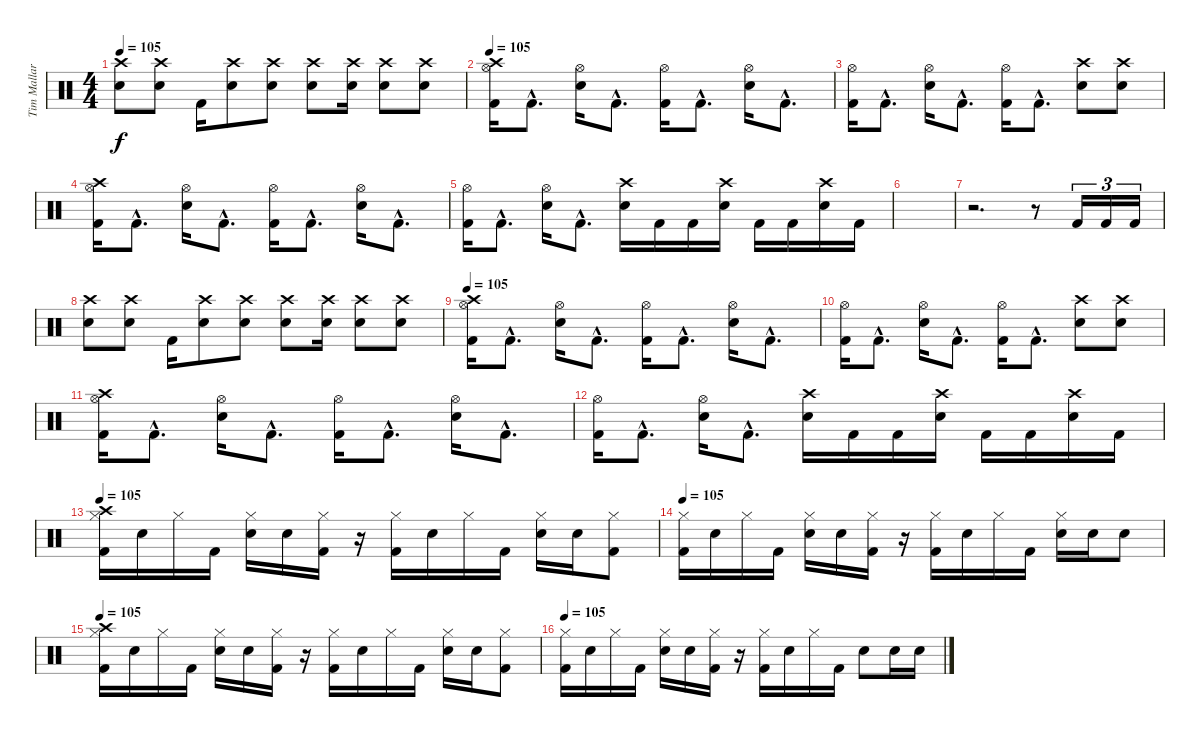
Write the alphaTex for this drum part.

\track ("Tim Mallare" "Tim Mallar") {instrument percussion}
\staff {score}
\articulation defaults
\ts (4 4)
\tempo 105
\clef neutral
\ks c
("Crash high (hit)" "Electric Snare (hit)").8{dy f} ("Crash high (hit)" "Electric Snare (hit)").8 "Kick (hit) 2".16 ("Crash high (hit)" "Electric Snare (hit)").8 ("Crash high (hit)" "Electric Snare (hit)").8 ("Crash high (hit)" "Electric Snare (hit)").8 ("Crash high (hit)" "Electric Snare (hit)").16 ("Crash high (hit)" "Electric Snare (hit)").8 ("Crash high (hit)" "Electric Snare (hit)").8 |
\tempo 105
("Crash high (hit)" "Hi-Hat (open)" "Kick (hit) 2").16 "Kick (hit) 2"{hac}.8{d} ("Hi-Hat (open)" "Electric Snare (hit)").16 "Kick (hit) 2"{hac}.8{d} ("Hi-Hat (open)" "Kick (hit) 2").16 "Kick (hit) 2"{hac}.8{d} ("Hi-Hat (open)" "Electric Snare (hit)").16 "Kick (hit) 2"{hac}.8{d} |
("Hi-Hat (open)" "Kick (hit) 2").16 "Kick (hit) 2"{hac}.8{d} ("Hi-Hat (open)" "Electric Snare (hit)").16 "Kick (hit) 2"{hac}.8{d} ("Hi-Hat (open)" "Kick (hit) 2").16 "Kick (hit) 2"{hac}.8{d} ("Crash high (hit)" "Electric Snare (hit)").8 ("Crash high (hit)" "Electric Snare (hit)").8 |
("Crash high (hit)" "Hi-Hat (open)" "Kick (hit) 2").16 "Kick (hit) 2"{hac}.8{d} ("Hi-Hat (open)" "Electric Snare (hit)").16 "Kick (hit) 2"{hac}.8{d} ("Hi-Hat (open)" "Kick (hit) 2").16 "Kick (hit) 2"{hac}.8{d} ("Hi-Hat (open)" "Electric Snare (hit)").16 "Kick (hit) 2"{hac}.8{d} |
("Hi-Hat (open)" "Kick (hit) 2").16 "Kick (hit) 2"{hac}.8{d} ("Hi-Hat (open)" "Electric Snare (hit)").16 "Kick (hit) 2"{hac}.8{d} ("Crash high (hit)" "Electric Snare (hit)").16 "Kick (hit) 2".16 "Kick (hit) 2".16 ("Crash high (hit)" "Electric Snare (hit)").16 "Kick (hit) 2".16 "Kick (hit) 2".16 ("Crash high (hit)" "Electric Snare (hit)").16 "Kick (hit) 2".16 |
|
r.2{d} r.8 "Kick (hit) 2".16{tu (3 2)} "Kick (hit) 2".16{tu (3 2)} "Kick (hit) 2".16{tu (3 2)} |
("Crash high (hit)" "Electric Snare (hit)").8 ("Crash high (hit)" "Electric Snare (hit)").8 "Kick (hit) 2".16 ("Crash high (hit)" "Electric Snare (hit)").8 ("Crash high (hit)" "Electric Snare (hit)").8 ("Crash high (hit)" "Electric Snare (hit)").8 ("Crash high (hit)" "Electric Snare (hit)").16 ("Crash high (hit)" "Electric Snare (hit)").8 ("Crash high (hit)" "Electric Snare (hit)").8 |
\tempo 105
("Crash high (hit)" "Hi-Hat (open)" "Kick (hit) 2").16 "Kick (hit) 2"{hac}.8{d} ("Hi-Hat (open)" "Electric Snare (hit)").16 "Kick (hit) 2"{hac}.8{d} ("Hi-Hat (open)" "Kick (hit) 2").16 "Kick (hit) 2"{hac}.8{d} ("Hi-Hat (open)" "Electric Snare (hit)").16 "Kick (hit) 2"{hac}.8{d} |
("Hi-Hat (open)" "Kick (hit) 2").16 "Kick (hit) 2"{hac}.8{d} ("Hi-Hat (open)" "Electric Snare (hit)").16 "Kick (hit) 2"{hac}.8{d} ("Hi-Hat (open)" "Kick (hit) 2").16 "Kick (hit) 2"{hac}.8{d} ("Crash high (hit)" "Electric Snare (hit)").8 ("Crash high (hit)" "Electric Snare (hit)").8 |
("Crash high (hit)" "Hi-Hat (open)" "Kick (hit) 2").16 "Kick (hit) 2"{hac}.8{d} ("Hi-Hat (open)" "Electric Snare (hit)").16 "Kick (hit) 2"{hac}.8{d} ("Hi-Hat (open)" "Kick (hit) 2").16 "Kick (hit) 2"{hac}.8{d} ("Hi-Hat (open)" "Electric Snare (hit)").16 "Kick (hit) 2"{hac}.8{d} |
("Hi-Hat (open)" "Kick (hit) 2").16 "Kick (hit) 2"{hac}.8{d} ("Hi-Hat (open)" "Electric Snare (hit)").16 "Kick (hit) 2"{hac}.8{d} ("Crash high (hit)" "Electric Snare (hit)").16 "Kick (hit) 2".16 "Kick (hit) 2".16 ("Crash high (hit)" "Electric Snare (hit)").16 "Kick (hit) 2".16 "Kick (hit) 2".16 ("Crash high (hit)" "Electric Snare (hit)").16 "Kick (hit) 2".16 |
\tempo 105
("Crash high (hit)" "Hi-Hat (closed)" "Kick (hit) 2").16 "Electric Snare (hit)".16 "Hi-Hat (closed)".16 "Kick (hit) 2".16 ("Hi-Hat (closed)" "Electric Snare (hit)").16 "Electric Snare (hit)".16 ("Hi-Hat (closed)" "Kick (hit) 2").16 r.16 ("Hi-Hat (closed)" "Kick (hit) 2").16 "Electric Snare (hit)".16 "Hi-Hat (closed)".16 "Kick (hit) 2".16 ("Hi-Hat (closed)" "Electric Snare (hit)").16 "Electric Snare (hit)".16 ("Hi-Hat (closed)" "Kick (hit) 2").8 |
\tempo 105
("Hi-Hat (closed)" "Kick (hit) 2").16 "Electric Snare (hit)".16 "Hi-Hat (closed)".16 "Kick (hit) 2".16 ("Hi-Hat (closed)" "Electric Snare (hit)").16 "Electric Snare (hit)".16 ("Hi-Hat (closed)" "Kick (hit) 2").16 r.16 ("Hi-Hat (closed)" "Kick (hit) 2").16 "Electric Snare (hit)".16 "Hi-Hat (closed)".16 "Kick (hit) 2".16 ("Hi-Hat (closed)" "Electric Snare (hit)").16 "Electric Snare (hit)".16 "Electric Snare (hit)".8 |
\tempo 105
("Crash high (hit)" "Hi-Hat (closed)" "Kick (hit) 2").16 "Electric Snare (hit)".16 "Hi-Hat (closed)".16 "Kick (hit) 2".16 ("Hi-Hat (closed)" "Electric Snare (hit)").16 "Electric Snare (hit)".16 ("Hi-Hat (closed)" "Kick (hit) 2").16 r.16 ("Hi-Hat (closed)" "Kick (hit) 2").16 "Electric Snare (hit)".16 "Hi-Hat (closed)".16 "Kick (hit) 2".16 ("Hi-Hat (closed)" "Electric Snare (hit)").16 "Electric Snare (hit)".16 ("Hi-Hat (closed)" "Kick (hit) 2").8 |
\tempo 105
("Hi-Hat (closed)" "Kick (hit) 2").16 "Electric Snare (hit)".16 "Hi-Hat (closed)".16 "Kick (hit) 2".16 ("Hi-Hat (closed)" "Electric Snare (hit)").16 "Electric Snare (hit)".16 ("Hi-Hat (closed)" "Kick (hit) 2").16 r.16 ("Hi-Hat (closed)" "Kick (hit) 2").16 "Electric Snare (hit)".16 "Hi-Hat (closed)".16 "Kick (hit) 2".16 "Electric Snare (hit)".8 "Electric Snare (hit)".16 "Electric Snare (hit)".16
